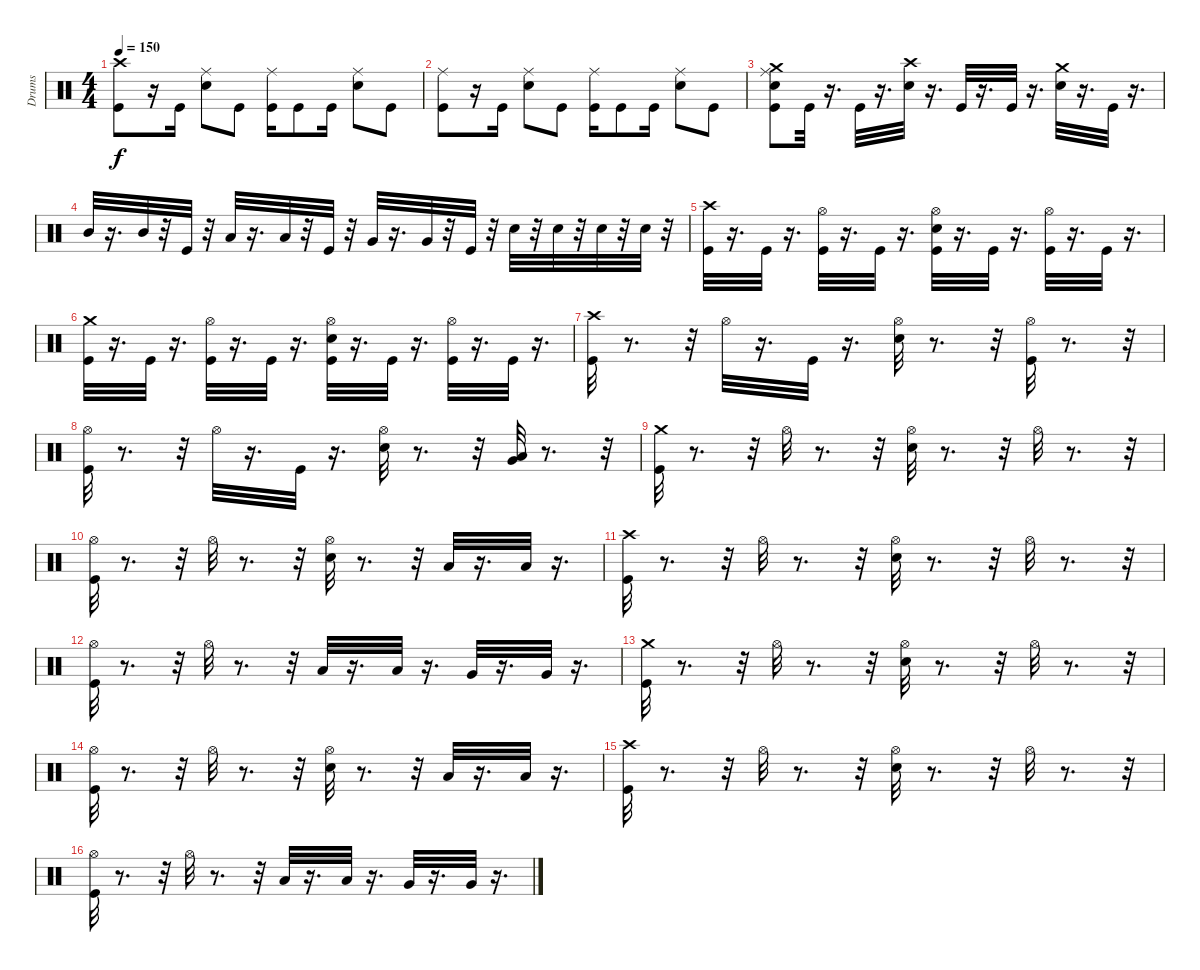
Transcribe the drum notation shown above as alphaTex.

\track ("Drums" "Drums") {instrument percussion}
\staff {score}
\articulation defaults
\ts (4 4)
\tempo 150
\clef neutral
\ks c
("Crash high (hit)" "Kick (hit)").8{dy f} r.16 "Kick (hit)".16 ("Ride (middle)" "Electric Snare (hit)").8 "Kick (hit)".8 ("Ride (middle)" "Kick (hit)").16 "Kick (hit)".8 "Kick (hit)".16 ("Ride (middle)" "Electric Snare (hit)").8 "Kick (hit)".8 |
("Kick (hit)" "Ride (middle)").8 r.16 "Kick (hit)".16 ("Ride (middle)" "Electric Snare (hit)").8 "Kick (hit)".8 ("Ride (middle)" "Kick (hit)").16 "Kick (hit)".8 "Kick (hit)".16 ("Ride (middle)" "Electric Snare (hit)").8 "Kick (hit)".8 |
("Crash medium (hit)" "Electric Snare (hit)" "Ride (middle)" "Kick (hit)").8 "Kick (hit)".32 r.16{d} "Kick (hit)".32 r.16{d} ("Crash high (hit)" "Electric Snare (hit)").32 r.16{d} "Kick (hit)".32 r.16{d} "Kick (hit)".32 r.16{d} ("Crash medium (hit)" "Electric Snare (hit)").32 r.16{d} "Kick (hit)".32 r.16{d} |
"Mid Tom (hit)".32 r.16{d} "Mid Tom (hit)".32 r.32 "Kick (hit)".32 r.32 "Low Tom (hit)".32 r.16{d} "Low Tom (hit)".32 r.32 "Kick (hit)".32 r.32 "Very Low Tom (hit)".32 r.16{d} "Very Low Tom (hit)".32 r.32 "Kick (hit)".32 r.32 "Electric Snare (hit)".32 r.32 "Electric Snare (hit)".32 r.32 "Electric Snare (hit)".32 r.32 "Electric Snare (hit)".32 r.32 |
("Crash high (hit)" "Kick (hit)").32 r.16{d} "Kick (hit)".32 r.16{d} ("Hi-Hat (open)" "Kick (hit)").32 r.16{d} "Kick (hit)".32 r.16{d} ("Kick (hit)" "Hi-Hat (open)" "Electric Snare (hit)").32 r.16{d} "Kick (hit)".32 r.16{d} ("Hi-Hat (open)" "Kick (hit)").32 r.16{d} "Kick (hit)".32 r.16{d} |
("Crash medium (hit)" "Kick (hit)").32 r.16{d} "Kick (hit)".32 r.16{d} ("Hi-Hat (open)" "Kick (hit)").32 r.16{d} "Kick (hit)".32 r.16{d} ("Hi-Hat (open)" "Kick (hit)" "Electric Snare (hit)").32 r.16{d} "Kick (hit)".32 r.16{d} ("Kick (hit)" "Hi-Hat (open)").32 r.16{d} "Kick (hit)".32 r.16{d} |
("Crash high (hit)" "Kick (hit)").32 r.8{d} r.32 "Hi-Hat (open)".32 r.16{d} "Kick (hit)".32 r.16{d} ("Hi-Hat (open)" "Electric Snare (hit)").32 r.8{d} r.32 ("Hi-Hat (open)" "Kick (hit)").32 r.8{d} r.32 |
("Hi-Hat (open)" "Kick (hit)").32 r.8{d} r.32 "Hi-Hat (open)".32 r.16{d} "Kick (hit)".32 r.16{d} ("Hi-Hat (open)" "Electric Snare (hit)").32 r.8{d} r.32 ("Very Low Tom (hit)" "Low Tom (hit)").32 r.8{d} r.32 |
("Crash medium (hit)" "Kick (hit)").32 r.8{d} r.32 "Hi-Hat (open)".32 r.8{d} r.32 ("Hi-Hat (open)" "Electric Snare (hit)").32 r.8{d} r.32 "Hi-Hat (open)".32 r.8{d} r.32 |
("Hi-Hat (open)" "Kick (hit)").32 r.8{d} r.32 "Hi-Hat (open)".32 r.8{d} r.32 ("Hi-Hat (open)" "Electric Snare (hit)").32 r.8{d} r.32 "Low Tom (hit)".32 r.16{d} "Low Tom (hit)".32 r.16{d} |
("Kick (hit)" "Crash high (hit)").32 r.8{d} r.32 "Hi-Hat (open)".32 r.8{d} r.32 ("Hi-Hat (open)" "Electric Snare (hit)").32 r.8{d} r.32 "Hi-Hat (open)".32 r.8{d} r.32 |
("Hi-Hat (open)" "Kick (hit)").32 r.8{d} r.32 "Hi-Hat (open)".32 r.8{d} r.32 "Low Tom (hit)".32 r.16{d} "Low Tom (hit)".32 r.16{d} "Very Low Tom (hit)".32 r.16{d} "Very Low Tom (hit)".32 r.16{d} |
("Crash medium (hit)" "Kick (hit)").32 r.8{d} r.32 "Hi-Hat (open)".32 r.8{d} r.32 ("Hi-Hat (open)" "Electric Snare (hit)").32 r.8{d} r.32 "Hi-Hat (open)".32 r.8{d} r.32 |
("Hi-Hat (open)" "Kick (hit)").32 r.8{d} r.32 "Hi-Hat (open)".32 r.8{d} r.32 ("Hi-Hat (open)" "Electric Snare (hit)").32 r.8{d} r.32 "Low Tom (hit)".32 r.16{d} "Low Tom (hit)".32 r.16{d} |
("Kick (hit)" "Crash high (hit)").32 r.8{d} r.32 "Hi-Hat (open)".32 r.8{d} r.32 ("Hi-Hat (open)" "Electric Snare (hit)").32 r.8{d} r.32 "Hi-Hat (open)".32 r.8{d} r.32 |
("Hi-Hat (open)" "Kick (hit)").32 r.8{d} r.32 "Hi-Hat (open)".32 r.8{d} r.32 "Low Tom (hit)".32 r.16{d} "Low Tom (hit)".32 r.16{d} "Very Low Tom (hit)".32 r.16{d} "Very Low Tom (hit)".32 r.16{d}
